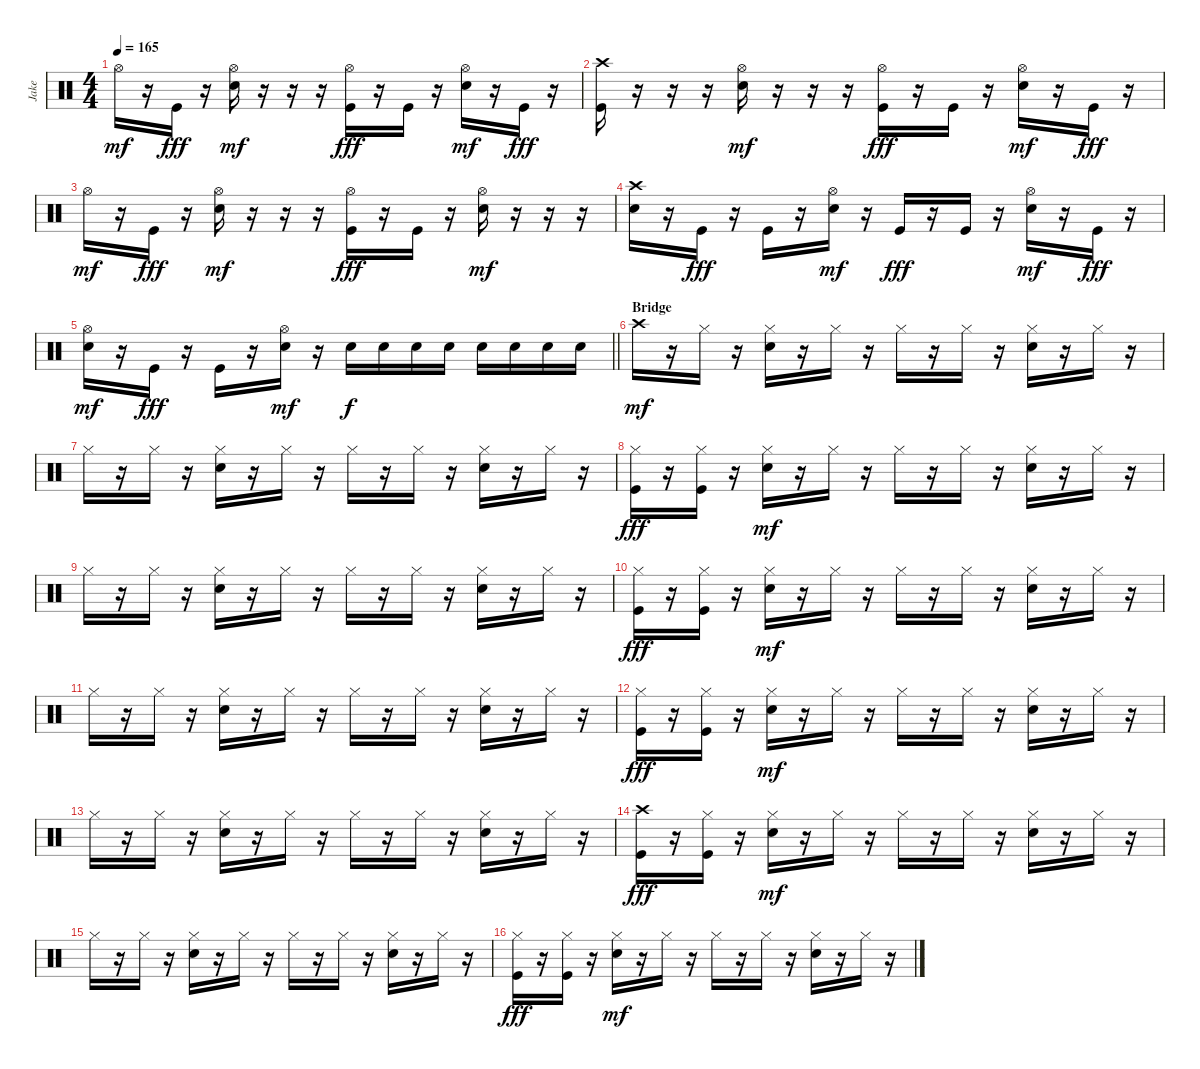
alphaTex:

\track ("Jake" "Jake") {instrument percussion}
\staff {score}
\articulation defaults
\ts (4 4)
\tempo 165
\clef neutral
\ks c "Hi-Hat (open)".16{dy mf}
r.16 "Kick (hit)".16{dy fff} r.16 ("Hi-Hat (open)" "Electric Snare (hit)").16{dy mf} r.16 r.16 r.16 ("Hi-Hat (open)" "Kick (hit)").16{dy fff} r.16 "Kick (hit)".16 r.16 ("Hi-Hat (open)" "Electric Snare (hit)").16{dy mf} r.16 "Kick (hit)".16{dy fff} r.16 |
("Crash high (hit)" "Kick (hit)").16 r.16 r.16 r.16 ("Hi-Hat (open)" "Electric Snare (hit)").16{dy mf} r.16 r.16 r.16 ("Hi-Hat (open)" "Kick (hit)").16{dy fff} r.16 "Kick (hit)".16 r.16 ("Hi-Hat (open)" "Electric Snare (hit)").16{dy mf} r.16 "Kick (hit)".16{dy fff} r.16 |
"Hi-Hat (open)".16{dy mf} r.16 "Kick (hit)".16{dy fff} r.16 ("Hi-Hat (open)" "Electric Snare (hit)").16{dy mf} r.16 r.16 r.16 ("Hi-Hat (open)" "Kick (hit)").16{dy fff} r.16 "Kick (hit)".16 r.16 ("Hi-Hat (open)" "Electric Snare (hit)").16{dy mf} r.16 r.16 r.16 |
("Crash high (hit)" "Electric Snare (hit)").16 r.16 "Kick (hit)".16{dy fff} r.16 "Kick (hit)".16 r.16 ("Hi-Hat (open)" "Electric Snare (hit)").16{dy mf} r.16 "Kick (hit)".16{dy fff} r.16 "Kick (hit)".16 r.16 ("Hi-Hat (open)" "Electric Snare (hit)").16{dy mf} r.16 "Kick (hit)".16{dy fff} r.16 |
\barLineRight lightlight
("Hi-Hat (open)" "Electric Snare (hit)").16{dy mf} r.16 "Kick (hit)".16{dy fff} r.16 "Kick (hit)".16 r.16 ("Hi-Hat (open)" "Electric Snare (hit)").16{dy mf} r.16 "Electric Snare (hit)".16{dy f} "Electric Snare (hit)".16 "Electric Snare (hit)".16 "Electric Snare (hit)".16 "Electric Snare (hit)".16 "Electric Snare (hit)".16 "Electric Snare (hit)".16 "Electric Snare (hit)".16 |
\section ("" "Bridge")
"Crash high (hit)".16{dy mf} r.16 "Hi-Hat (closed)".16 r.16 ("Hi-Hat (closed)" "Electric Snare (hit)").16 r.16 "Hi-Hat (closed)".16 r.16 "Hi-Hat (closed)".16 r.16 "Hi-Hat (closed)".16 r.16 ("Hi-Hat (closed)" "Electric Snare (hit)").16 r.16 "Hi-Hat (closed)".16 r.16 |
"Hi-Hat (closed)".16 r.16 "Hi-Hat (closed)".16 r.16 ("Hi-Hat (closed)" "Electric Snare (hit)").16 r.16 "Hi-Hat (closed)".16 r.16 "Hi-Hat (closed)".16 r.16 "Hi-Hat (closed)".16 r.16 ("Hi-Hat (closed)" "Electric Snare (hit)").16 r.16 "Hi-Hat (closed)".16 r.16 |
("Hi-Hat (closed)" "Kick (hit)").16{dy fff} r.16 ("Hi-Hat (closed)" "Kick (hit)").16 r.16 ("Hi-Hat (closed)" "Electric Snare (hit)").16{dy mf} r.16 "Hi-Hat (closed)".16 r.16 "Hi-Hat (closed)".16 r.16 "Hi-Hat (closed)".16 r.16 ("Hi-Hat (closed)" "Electric Snare (hit)").16 r.16 "Hi-Hat (closed)".16 r.16 |
"Hi-Hat (closed)".16 r.16 "Hi-Hat (closed)".16 r.16 ("Hi-Hat (closed)" "Electric Snare (hit)").16 r.16 "Hi-Hat (closed)".16 r.16 "Hi-Hat (closed)".16 r.16 "Hi-Hat (closed)".16 r.16 ("Hi-Hat (closed)" "Electric Snare (hit)").16 r.16 "Hi-Hat (closed)".16 r.16 |
("Hi-Hat (closed)" "Kick (hit)").16{dy fff} r.16 ("Hi-Hat (closed)" "Kick (hit)").16 r.16 ("Hi-Hat (closed)" "Electric Snare (hit)").16{dy mf} r.16 "Hi-Hat (closed)".16 r.16 "Hi-Hat (closed)".16 r.16 "Hi-Hat (closed)".16 r.16 ("Hi-Hat (closed)" "Electric Snare (hit)").16 r.16 "Hi-Hat (closed)".16 r.16 |
"Hi-Hat (closed)".16 r.16 "Hi-Hat (closed)".16 r.16 ("Hi-Hat (closed)" "Electric Snare (hit)").16 r.16 "Hi-Hat (closed)".16 r.16 "Hi-Hat (closed)".16 r.16 "Hi-Hat (closed)".16 r.16 ("Hi-Hat (closed)" "Electric Snare (hit)").16 r.16 "Hi-Hat (closed)".16 r.16 |
("Hi-Hat (closed)" "Kick (hit)").16{dy fff} r.16 ("Hi-Hat (closed)" "Kick (hit)").16 r.16 ("Hi-Hat (closed)" "Electric Snare (hit)").16{dy mf} r.16 "Hi-Hat (closed)".16 r.16 "Hi-Hat (closed)".16 r.16 "Hi-Hat (closed)".16 r.16 ("Hi-Hat (closed)" "Electric Snare (hit)").16 r.16 "Hi-Hat (closed)".16 r.16 |
"Hi-Hat (closed)".16 r.16 "Hi-Hat (closed)".16 r.16 ("Hi-Hat (closed)" "Electric Snare (hit)").16 r.16 "Hi-Hat (closed)".16 r.16 "Hi-Hat (closed)".16 r.16 "Hi-Hat (closed)".16 r.16 ("Hi-Hat (closed)" "Electric Snare (hit)").16 r.16 "Hi-Hat (closed)".16 r.16 |
("Crash high (hit)" "Kick (hit)").16{dy fff} r.16 ("Hi-Hat (closed)" "Kick (hit)").16 r.16 ("Hi-Hat (closed)" "Electric Snare (hit)").16{dy mf} r.16 "Hi-Hat (closed)".16 r.16 "Hi-Hat (closed)".16 r.16 "Hi-Hat (closed)".16 r.16 ("Hi-Hat (closed)" "Electric Snare (hit)").16 r.16 "Hi-Hat (closed)".16 r.16 |
"Hi-Hat (closed)".16 r.16 "Hi-Hat (closed)".16 r.16 ("Hi-Hat (closed)" "Electric Snare (hit)").16 r.16 "Hi-Hat (closed)".16 r.16 "Hi-Hat (closed)".16 r.16 "Hi-Hat (closed)".16 r.16 ("Hi-Hat (closed)" "Electric Snare (hit)").16 r.16 "Hi-Hat (closed)".16 r.16 |
("Hi-Hat (closed)" "Kick (hit)").16{dy fff} r.16 ("Hi-Hat (closed)" "Kick (hit)").16 r.16 ("Hi-Hat (closed)" "Electric Snare (hit)").16{dy mf} r.16 "Hi-Hat (closed)".16 r.16 "Hi-Hat (closed)".16 r.16 "Hi-Hat (closed)".16 r.16 ("Hi-Hat (closed)" "Electric Snare (hit)").16 r.16 "Hi-Hat (closed)".16 r.16
